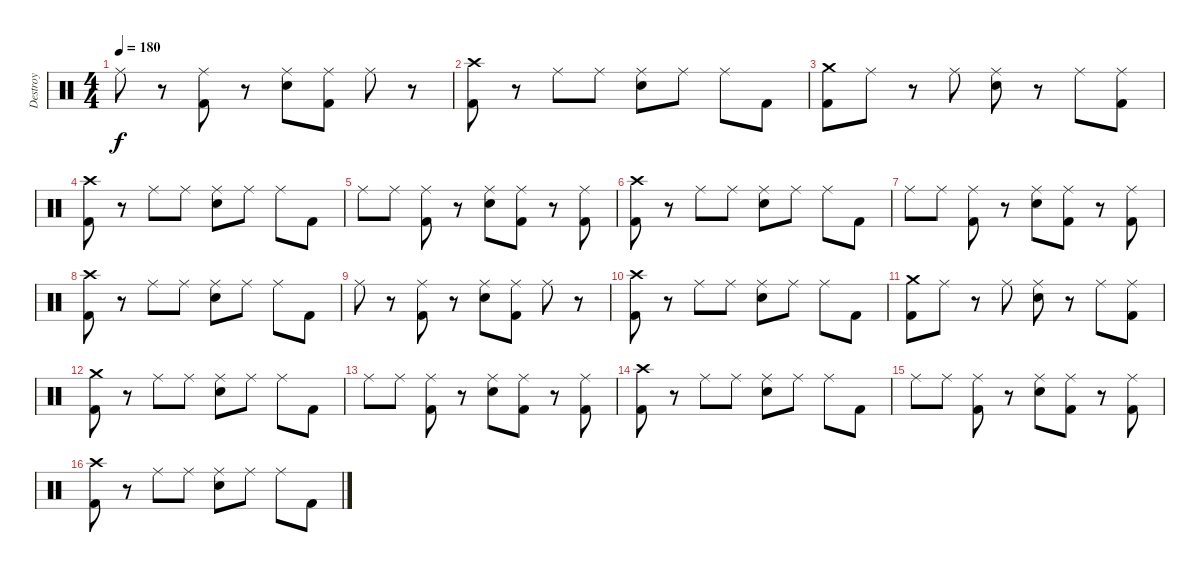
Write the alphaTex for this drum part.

\track ("Destroy" "Destroy") {instrument percussion}
\staff {score}
\articulation defaults
\ts (4 4)
\tempo 180
\clef neutral
\ks c "Ride (middle)".8{dy f}
r.8 ("Ride (middle)" "Kick (hit) 2").8 r.8 ("Ride (middle)" "Electric Snare (hit)").8 ("Ride (middle)" "Kick (hit) 2").8 "Ride (middle)".8 r.8 |
("Crash high (hit)" "Kick (hit) 2").8 r.8 "Ride (middle)".8 "Ride (middle)".8 ("Ride (middle)" "Electric Snare (hit)").8 "Ride (middle)".8 "Ride (middle)".8 "Kick (hit) 2".8 |
("Crash medium (hit)" "Kick (hit) 2").8 "Ride (middle)".8 r.8 "Ride (middle)".8 ("Ride (middle)" "Electric Snare (hit)").8 r.8 "Ride (middle)".8 ("Ride (middle)" "Kick (hit) 2").8 |
("Crash high (hit)" "Kick (hit) 2").8 r.8 "Ride (middle)".8 "Ride (middle)".8 ("Ride (middle)" "Electric Snare (hit)").8 "Ride (middle)".8 "Ride (middle)".8 "Kick (hit) 2".8 |
"Ride (middle)".8 "Ride (middle)".8 ("Ride (middle)" "Kick (hit) 2").8 r.8 ("Ride (middle)" "Electric Snare (hit)").8 ("Ride (middle)" "Kick (hit) 2").8 r.8 ("Ride (middle)" "Kick (hit) 2").8 |
("Crash high (hit)" "Kick (hit) 2").8 r.8 "Ride (middle)".8 "Ride (middle)".8 ("Ride (middle)" "Electric Snare (hit)").8 "Ride (middle)".8 "Ride (middle)".8 "Kick (hit) 2".8 |
"Ride (middle)".8 "Ride (middle)".8 ("Ride (middle)" "Kick (hit) 2").8 r.8 ("Ride (middle)" "Electric Snare (hit)").8 ("Ride (middle)" "Kick (hit) 2").8 r.8 ("Ride (middle)" "Kick (hit) 2").8 |
("Crash high (hit)" "Kick (hit) 2").8 r.8 "Ride (middle)".8 "Ride (middle)".8 ("Ride (middle)" "Electric Snare (hit)").8 "Ride (middle)".8 "Ride (middle)".8 "Kick (hit) 2".8 |
"Ride (middle)".8 r.8 ("Ride (middle)" "Kick (hit) 2").8 r.8 ("Ride (middle)" "Electric Snare (hit)").8 ("Ride (middle)" "Kick (hit) 2").8 "Ride (middle)".8 r.8 |
("Crash high (hit)" "Kick (hit) 2").8 r.8 "Ride (middle)".8 "Ride (middle)".8 ("Ride (middle)" "Electric Snare (hit)").8 "Ride (middle)".8 "Ride (middle)".8 "Kick (hit) 2".8 |
("Crash medium (hit)" "Kick (hit) 2").8 "Ride (middle)".8 r.8 "Ride (middle)".8 ("Ride (middle)" "Electric Snare (hit)").8 r.8 "Ride (middle)".8 ("Ride (middle)" "Kick (hit) 2").8 |
("Crash medium (hit)" "Kick (hit) 2").8 r.8 "Ride (middle)".8 "Ride (middle)".8 ("Ride (middle)" "Electric Snare (hit)").8 "Ride (middle)".8 "Ride (middle)".8 "Kick (hit) 2".8 |
"Ride (middle)".8 "Ride (middle)".8 ("Ride (middle)" "Kick (hit) 2").8 r.8 ("Ride (middle)" "Electric Snare (hit)").8 ("Ride (middle)" "Kick (hit) 2").8 r.8 ("Ride (middle)" "Kick (hit) 2").8 |
("Crash high (hit)" "Kick (hit) 2").8 r.8 "Ride (middle)".8 "Ride (middle)".8 ("Ride (middle)" "Electric Snare (hit)").8 "Ride (middle)".8 "Ride (middle)".8 "Kick (hit) 2".8 |
"Ride (middle)".8 "Ride (middle)".8 ("Ride (middle)" "Kick (hit) 2").8 r.8 ("Ride (middle)" "Electric Snare (hit)").8 ("Ride (middle)" "Kick (hit) 2").8 r.8 ("Ride (middle)" "Kick (hit) 2").8 |
("Crash high (hit)" "Kick (hit) 2").8 r.8 "Ride (middle)".8 "Ride (middle)".8 ("Ride (middle)" "Electric Snare (hit)").8 "Ride (middle)".8 "Ride (middle)".8 "Kick (hit) 2".8
